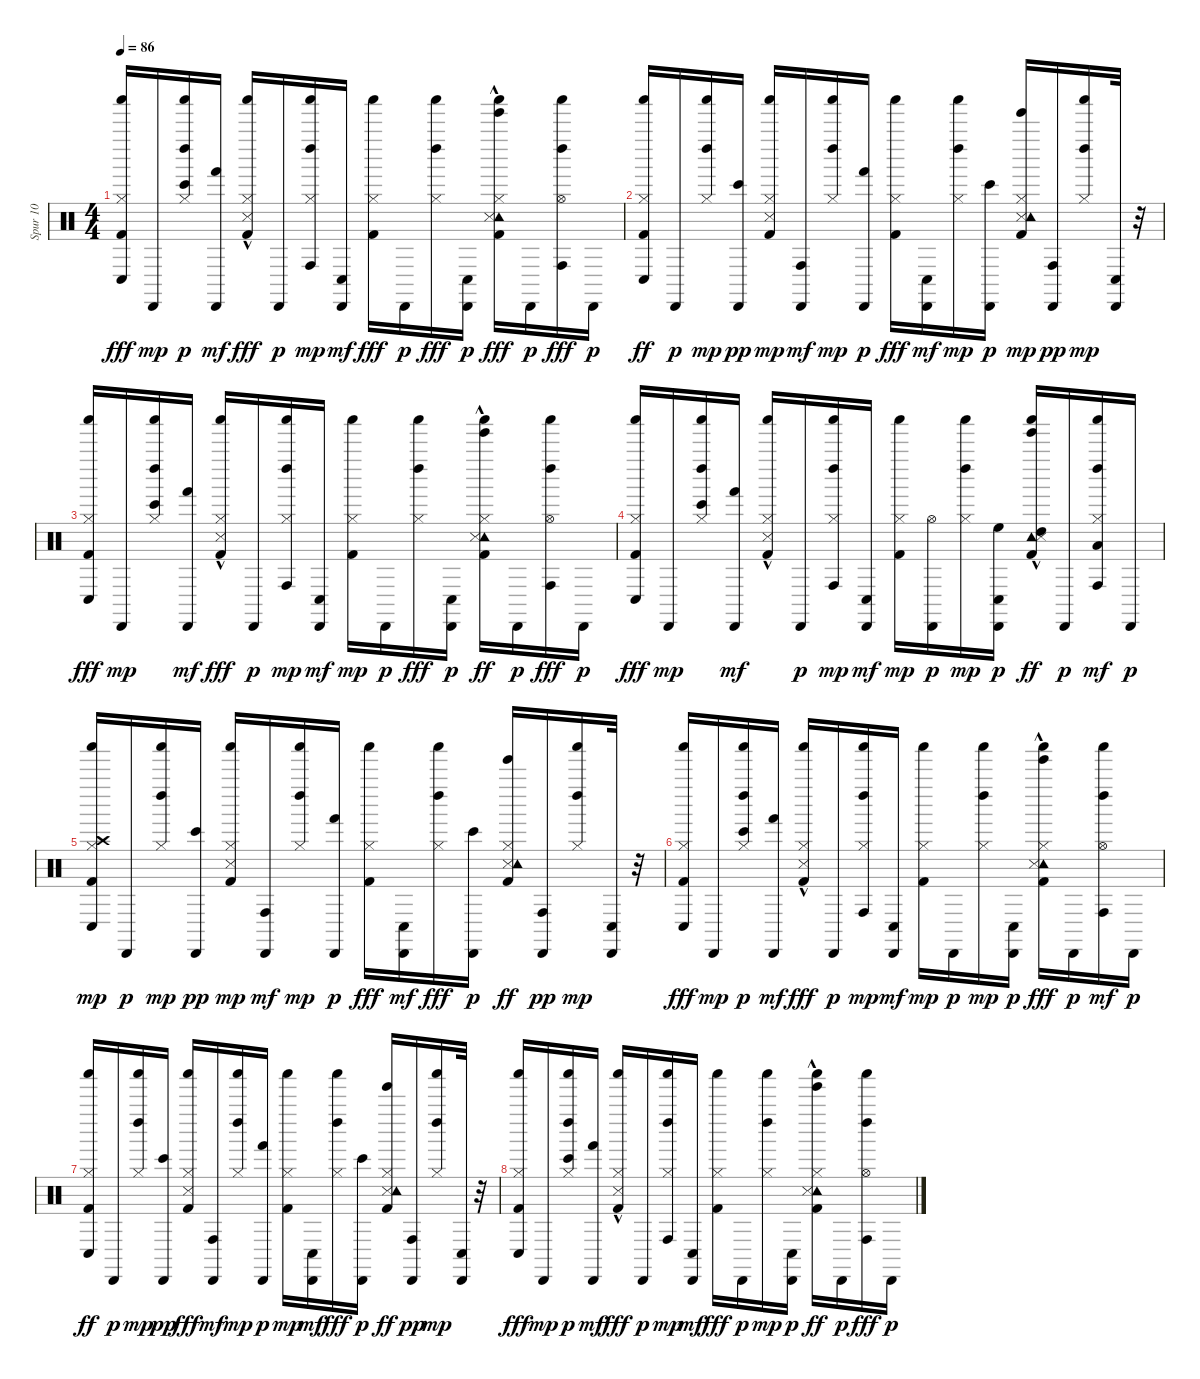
\track ("Spur 10" "Spur 10") {instrument percussion}
\staff {score}
\articulation defaults
\ts (4 4)
\tempo 86
\clef neutral
\ks c
("Hi-Hat (closed)" "Kick (hit) 2" "Shaker (hit)" "Conga low (hit)").16{dy fff} "Cabasa (hit)".16{dy mp} ("Hi-Hat (closed)" "Shaker (hit)" "Bongo High (hit)" "Left Maraca (hit)").16{dy p} ("Cabasa (hit)" "Hand (hit)").16{dy mf} ("Hi-Hat (closed)" "Snare (side stick) 3"{hac} "Shaker (hit)" "Kick (hit) 2").16{dy fff} "Cabasa (hit)".16{dy p} ("Hi-Hat (closed)" "Conga high (hit)" "Shaker (hit)" "Left Maraca (hit)").16{dy mp} ("Cabasa (hit)" "Conga low (hit)").16{dy mf} ("Hi-Hat (closed)" "Shaker (hit)" "Kick (hit) 2").16{dy fff} "Cabasa (hit)".16{dy p} ("Hi-Hat (closed)" "Shaker (hit)" "Left Maraca (hit)").16{dy fff} ("Cabasa (hit)" "Conga low (hit)").16{dy p} ("Hi-Hat (closed)" "Tinkle Bell (hit)"{hac} "Tambourine (hit)"{hac} "Shaker (hit)" "Kick (hit) 2" "Snare (side stick) 3"{hac}).16{dy fff} "Cabasa (hit)".16{dy p} ("Hi-Hat (open)" "Shaker (hit)" "Conga high (hit)" "Left Maraca (hit)").16{dy fff} "Cabasa (hit)".16{dy p} |
("Hi-Hat (closed)" "Shaker (hit)" "Kick (hit) 2" "Conga low (hit)").16{dy ff} "Cabasa (hit)".16{dy p} ("Shaker (hit)" "Hi-Hat (closed)" "Left Maraca (hit)").16{dy mp} ("Bongo High (hit)" "Cabasa (hit)").16{dy pp} ("Shaker (hit)" "Kick (hit) 2" "Snare (side stick) 3" "Hi-Hat (closed)").16{dy mp} ("Cabasa (hit)" "Conga high (hit)").16{dy mf} ("Shaker (hit)" "Hi-Hat (closed)" "Left Maraca (hit)").16{dy mp} ("Hand (hit)" "Cabasa (hit)").16{dy p} ("Hi-Hat (closed)" "Shaker (hit)" "Kick (hit) 2").16{dy fff} ("Cabasa (hit)" "Conga low (hit)").16{dy mf} ("Shaker (hit)" "Hi-Hat (closed)" "Left Maraca (hit)").16{dy mp} ("Bongo High (hit)" "Cabasa (hit)").16{dy p} ("Snare (side stick) 3" "Kick (hit) 2" "Tambourine (hit)" "Tinkle Bell (hit)" "Hi-Hat (closed)").16{dy mp} ("Conga high (hit)" "Cabasa (hit)").16{dy pp} ("Shaker (hit)" "Hi-Hat (closed)" "Left Maraca (hit)").16{dy mp} ("Conga low (hit)" "Cabasa (hit)").32 r.32 |
("Hi-Hat (closed)" "Kick (hit) 2" "Shaker (hit)" "Conga low (hit)").16{dy fff} "Cabasa (hit)".16{dy mp} ("Shaker (hit)" "Bongo High (hit)" "Hi-Hat (closed)" "Left Maraca (hit)").16 ("Cabasa (hit)" "Hand (hit)").16{dy mf} ("Hi-Hat (closed)" "Snare (side stick) 3"{hac} "Shaker (hit)" "Kick (hit) 2").16{dy fff} "Cabasa (hit)".16{dy p} ("Conga high (hit)" "Shaker (hit)" "Hi-Hat (closed)" "Left Maraca (hit)").16{dy mp} ("Cabasa (hit)" "Conga low (hit)").16{dy mf} ("Shaker (hit)" "Kick (hit) 2" "Hi-Hat (closed)").16{dy mp} "Cabasa (hit)".16{dy p} ("Shaker (hit)" "Hi-Hat (closed)" "Left Maraca (hit)").16{dy fff} ("Cabasa (hit)" "Conga low (hit)").16{dy p} ("Hi-Hat (closed)" "Tambourine (hit)"{hac} "Shaker (hit)" "Kick (hit) 2" "Snare (side stick) 3"{hac} "Tinkle Bell (hit)").16{dy ff} "Cabasa (hit)".16{dy p} ("Hi-Hat (open)" "Shaker (hit)" "Conga high (hit)" "Left Maraca (hit)").16{dy fff} "Cabasa (hit)".16{dy p} |
("Hi-Hat (closed)" "Kick (hit) 2" "Shaker (hit)" "Conga low (hit)").16{dy fff} "Cabasa (hit)".16{dy mp} ("Shaker (hit)" "Bongo High (hit)" "Hi-Hat (closed)" "Left Maraca (hit)").16 ("Cabasa (hit)" "Hand (hit)").16{dy mf} ("Snare (side stick) 3"{hac} "Shaker (hit)" "Kick (hit) 2" "Hi-Hat (closed)").16 "Cabasa (hit)".16{dy p} ("Conga high (hit)" "Shaker (hit)" "Hi-Hat (closed)" "Left Maraca (hit)").16{dy mp} ("Cabasa (hit)" "Conga low (hit)").16{dy mf} ("Shaker (hit)" "Kick (hit) 2" "Hi-Hat (closed)").16{dy mp} ("Hi-Hat (open)" "Cabasa (hit)").16{dy p} ("Shaker (hit)" "Hi-Hat (closed)" "Left Maraca (hit)").16{dy mp} ("High Floor Tom (hit)" "Cabasa (hit)" "Conga low (hit)").16{dy p} ("High Tom (hit)" "Tambourine (hit)"{hac} "Shaker (hit)" "Kick (hit) 2" "Snare (side stick) 3"{hac} "Tinkle Bell (hit)").16{dy ff} "Cabasa (hit)".16{dy p} ("Shaker (hit)" "Conga high (hit)" "Low Tom (hit)" "Hi-Hat (closed)" "Left Maraca (hit)").16{dy mf} "Cabasa (hit)".16{dy p} |
("Shaker (hit)" "Kick (hit) 2" "Conga low (hit)" "Crash high (hit)" "Hi-Hat (closed)").16{dy mp} "Cabasa (hit)".16{dy p} ("Hi-Hat (closed)" "Shaker (hit)" "Left Maraca (hit)").16{dy mp} ("Bongo High (hit)" "Cabasa (hit)").16{dy pp} ("Shaker (hit)" "Kick (hit) 2" "Snare (side stick) 3" "Hi-Hat (closed)").16{dy mp} ("Cabasa (hit)" "Conga high (hit)").16{dy mf} ("Shaker (hit)" "Hi-Hat (closed)" "Left Maraca (hit)").16{dy mp} ("Hand (hit)" "Cabasa (hit)").16{dy p} ("Hi-Hat (closed)" "Shaker (hit)" "Kick (hit) 2").16{dy fff} ("Cabasa (hit)" "Conga low (hit)").16{dy mf} ("Shaker (hit)" "Hi-Hat (closed)" "Left Maraca (hit)").16{dy fff} ("Bongo High (hit)" "Cabasa (hit)").16{dy p} ("Hi-Hat (closed)" "Snare (side stick) 3" "Kick (hit) 2" "Tambourine (hit)" "Tinkle Bell (hit)").16{dy ff} ("Conga high (hit)" "Cabasa (hit)").16{dy pp} ("Shaker (hit)" "Hi-Hat (closed)" "Left Maraca (hit)").16{dy mp} ("Conga low (hit)" "Cabasa (hit)").32 r.32 |
("Hi-Hat (closed)" "Kick (hit) 2" "Shaker (hit)" "Conga low (hit)").16{dy fff} "Cabasa (hit)".16{dy mp} ("Hi-Hat (closed)" "Shaker (hit)" "Bongo High (hit)" "Left Maraca (hit)").16{dy p} ("Cabasa (hit)" "Hand (hit)").16{dy mf} ("Hi-Hat (closed)" "Snare (side stick) 3"{hac} "Shaker (hit)" "Kick (hit) 2").16{dy fff} "Cabasa (hit)".16{dy p} ("Conga high (hit)" "Shaker (hit)" "Hi-Hat (closed)" "Left Maraca (hit)").16{dy mp} ("Cabasa (hit)" "Conga low (hit)").16{dy mf} ("Shaker (hit)" "Kick (hit) 2" "Hi-Hat (closed)").16{dy mp} "Cabasa (hit)".16{dy p} ("Shaker (hit)" "Hi-Hat (closed)" "Left Maraca (hit)").16{dy mp} ("Cabasa (hit)" "Conga low (hit)").16{dy p} ("Tinkle Bell (hit)" "Tambourine (hit)"{hac} "Shaker (hit)" "Kick (hit) 2" "Snare (side stick) 3"{hac} "Hi-Hat (closed)").16{dy fff} "Cabasa (hit)".16{dy p} ("Shaker (hit)" "Conga high (hit)" "Hi-Hat (open)" "Left Maraca (hit)").16{dy mf} "Cabasa (hit)".16{dy p} |
("Hi-Hat (closed)" "Shaker (hit)" "Kick (hit) 2" "Conga low (hit)").16{dy ff} "Cabasa (hit)".16{dy p} ("Shaker (hit)" "Hi-Hat (closed)" "Left Maraca (hit)").16{dy mp} ("Bongo High (hit)" "Cabasa (hit)").16{dy pp} ("Hi-Hat (closed)" "Shaker (hit)" "Kick (hit) 2" "Snare (side stick) 3").16{dy fff} ("Cabasa (hit)" "Conga high (hit)").16{dy mf} ("Hi-Hat (closed)" "Shaker (hit)" "Left Maraca (hit)").16{dy mp} ("Hand (hit)" "Cabasa (hit)").16{dy p} ("Shaker (hit)" "Kick (hit) 2" "Hi-Hat (closed)").16{dy mp} ("Cabasa (hit)" "Conga low (hit)").16{dy mf} ("Shaker (hit)" "Hi-Hat (closed)" "Left Maraca (hit)").16{dy fff} ("Bongo High (hit)" "Cabasa (hit)").16{dy p} ("Hi-Hat (closed)" "Snare (side stick) 3" "Kick (hit) 2" "Tambourine (hit)" "Tinkle Bell (hit)").16{dy ff} ("Conga high (hit)" "Cabasa (hit)").16{dy pp} ("Shaker (hit)" "Hi-Hat (closed)" "Left Maraca (hit)").16{dy mp} ("Conga low (hit)" "Cabasa (hit)").32 r.32 |
("Hi-Hat (closed)" "Kick (hit) 2" "Shaker (hit)" "Conga low (hit)").16{dy fff} "Cabasa (hit)".16{dy mp} ("Hi-Hat (closed)" "Shaker (hit)" "Bongo High (hit)" "Left Maraca (hit)").16{dy p} ("Cabasa (hit)" "Hand (hit)").16{dy mf} ("Hi-Hat (closed)" "Snare (side stick) 3"{hac} "Shaker (hit)" "Kick (hit) 2").16{dy fff} "Cabasa (hit)".16{dy p} ("Conga high (hit)" "Shaker (hit)" "Hi-Hat (closed)" "Left Maraca (hit)").16{dy mp} ("Cabasa (hit)" "Conga low (hit)").16{dy mf} ("Hi-Hat (closed)" "Shaker (hit)" "Kick (hit) 2").16{dy fff} "Cabasa (hit)".16{dy p} ("Shaker (hit)" "Hi-Hat (closed)" "Left Maraca (hit)").16{dy mp} ("Cabasa (hit)" "Conga low (hit)").16{dy p} ("Hi-Hat (closed)" "Tambourine (hit)"{hac} "Shaker (hit)" "Kick (hit) 2" "Snare (side stick) 3"{hac} "Tinkle Bell (hit)"{hac}).16{dy ff} "Cabasa (hit)".16{dy p} ("Hi-Hat (open)" "Shaker (hit)" "Conga high (hit)" "Left Maraca (hit)").16{dy fff} "Cabasa (hit)".16{dy p}
